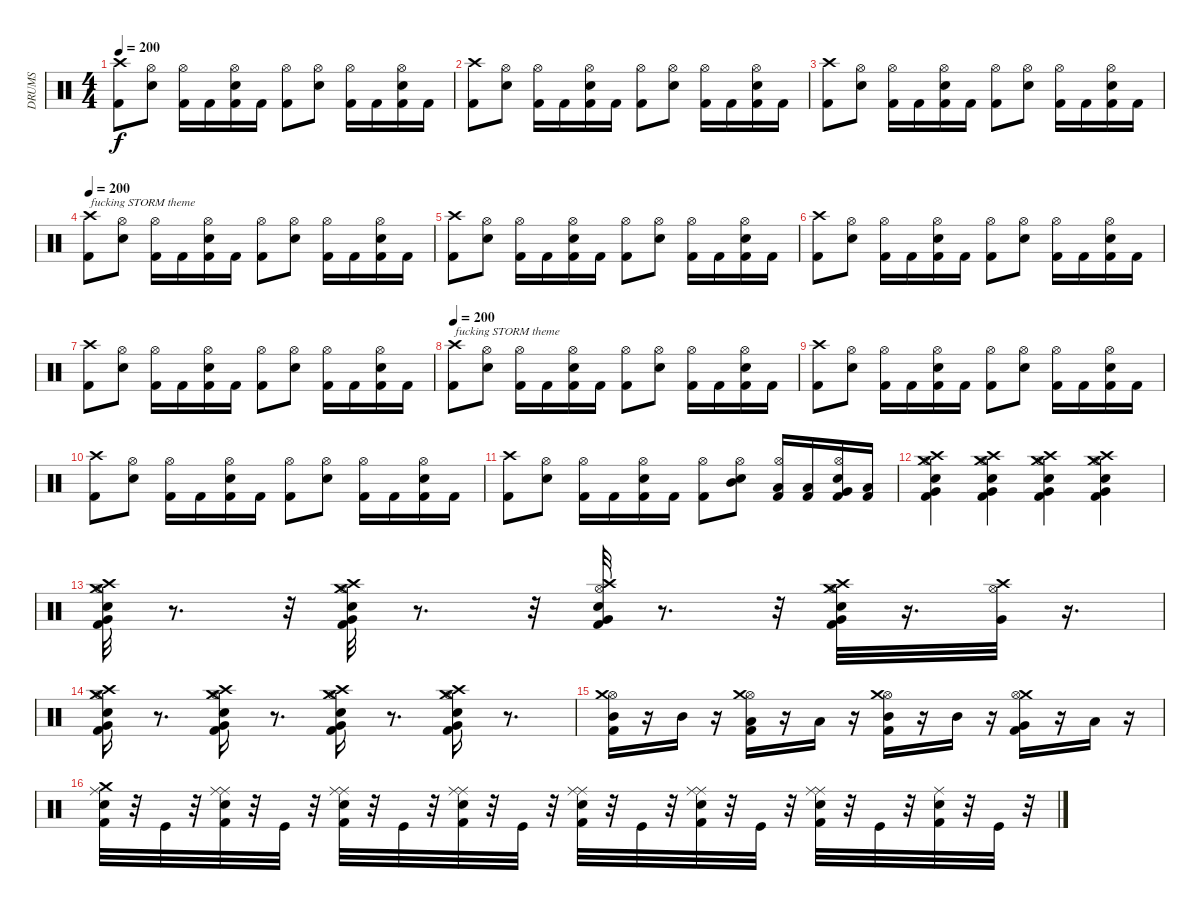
\track ("DRUMS" "DRUMS") {instrument percussion}
\staff {score}
\articulation defaults
\ts (4 4)
\tempo 200
\clef neutral
\ks c
("Kick (hit) 2" "Crash high (hit)").8{dy f} ("Snare (hit) 2" "Hi-Hat (open)").8 ("Kick (hit) 2" "Hi-Hat (open)").16 "Kick (hit) 2".16 ("Kick (hit) 2" "Snare (hit) 2" "Hi-Hat (open)").16 "Kick (hit) 2".16 ("Kick (hit) 2" "Hi-Hat (open)").8 ("Snare (hit) 2" "Hi-Hat (open)").8 ("Kick (hit) 2" "Hi-Hat (open)").16 "Kick (hit) 2".16 ("Kick (hit) 2" "Snare (hit) 2" "Hi-Hat (open)").16 "Kick (hit) 2".16 |
("Kick (hit) 2" "Crash high (hit)").8 ("Snare (hit) 2" "Hi-Hat (open)").8 ("Kick (hit) 2" "Hi-Hat (open)").16 "Kick (hit) 2".16 ("Kick (hit) 2" "Snare (hit) 2" "Hi-Hat (open)").16 "Kick (hit) 2".16 ("Kick (hit) 2" "Hi-Hat (open)").8 ("Snare (hit) 2" "Hi-Hat (open)").8 ("Kick (hit) 2" "Hi-Hat (open)").16 "Kick (hit) 2".16 ("Kick (hit) 2" "Snare (hit) 2" "Hi-Hat (open)").16 "Kick (hit) 2".16 |
("Kick (hit) 2" "Crash high (hit)").8 ("Snare (hit) 2" "Hi-Hat (open)").8 ("Kick (hit) 2" "Hi-Hat (open)").16 "Kick (hit) 2".16 ("Kick (hit) 2" "Snare (hit) 2" "Hi-Hat (open)").16 "Kick (hit) 2".16 ("Kick (hit) 2" "Hi-Hat (open)").8 ("Snare (hit) 2" "Hi-Hat (open)").8 ("Kick (hit) 2" "Hi-Hat (open)").16 "Kick (hit) 2".16 ("Kick (hit) 2" "Snare (hit) 2" "Hi-Hat (open)").16 "Kick (hit) 2".16 |
\tempo 200
("Kick (hit) 2" "Crash high (hit)").8{txt "fucking STORM theme"} ("Snare (hit) 2" "Hi-Hat (open)").8 ("Kick (hit) 2" "Hi-Hat (open)").16 "Kick (hit) 2".16 ("Kick (hit) 2" "Snare (hit) 2" "Hi-Hat (open)").16 "Kick (hit) 2".16 ("Kick (hit) 2" "Hi-Hat (open)").8 ("Snare (hit) 2" "Hi-Hat (open)").8 ("Kick (hit) 2" "Hi-Hat (open)").16 "Kick (hit) 2".16 ("Kick (hit) 2" "Snare (hit) 2" "Hi-Hat (open)").16 "Kick (hit) 2".16 |
("Kick (hit) 2" "Crash high (hit)").8 ("Snare (hit) 2" "Hi-Hat (open)").8 ("Kick (hit) 2" "Hi-Hat (open)").16 "Kick (hit) 2".16 ("Kick (hit) 2" "Snare (hit) 2" "Hi-Hat (open)").16 "Kick (hit) 2".16 ("Kick (hit) 2" "Hi-Hat (open)").8 ("Snare (hit) 2" "Hi-Hat (open)").8 ("Kick (hit) 2" "Hi-Hat (open)").16 "Kick (hit) 2".16 ("Kick (hit) 2" "Snare (hit) 2" "Hi-Hat (open)").16 "Kick (hit) 2".16 |
("Kick (hit) 2" "Crash high (hit)").8 ("Snare (hit) 2" "Hi-Hat (open)").8 ("Kick (hit) 2" "Hi-Hat (open)").16 "Kick (hit) 2".16 ("Kick (hit) 2" "Snare (hit) 2" "Hi-Hat (open)").16 "Kick (hit) 2".16 ("Kick (hit) 2" "Hi-Hat (open)").8 ("Snare (hit) 2" "Hi-Hat (open)").8 ("Kick (hit) 2" "Hi-Hat (open)").16 "Kick (hit) 2".16 ("Kick (hit) 2" "Snare (hit) 2" "Hi-Hat (open)").16 "Kick (hit) 2".16 |
("Kick (hit) 2" "Crash high (hit)").8 ("Snare (hit) 2" "Hi-Hat (open)").8 ("Kick (hit) 2" "Hi-Hat (open)").16 "Kick (hit) 2".16 ("Kick (hit) 2" "Snare (hit) 2" "Hi-Hat (open)").16 "Kick (hit) 2".16 ("Kick (hit) 2" "Hi-Hat (open)").8 ("Snare (hit) 2" "Hi-Hat (open)").8 ("Kick (hit) 2" "Hi-Hat (open)").16 "Kick (hit) 2".16 ("Kick (hit) 2" "Snare (hit) 2" "Hi-Hat (open)").16 "Kick (hit) 2".16 |
\tempo 200
("Kick (hit) 2" "Crash high (hit)").8{txt "fucking STORM theme"} ("Snare (hit) 2" "Hi-Hat (open)").8 ("Kick (hit) 2" "Hi-Hat (open)").16 "Kick (hit) 2".16 ("Kick (hit) 2" "Snare (hit) 2" "Hi-Hat (open)").16 "Kick (hit) 2".16 ("Kick (hit) 2" "Hi-Hat (open)").8 ("Snare (hit) 2" "Hi-Hat (open)").8 ("Kick (hit) 2" "Hi-Hat (open)").16 "Kick (hit) 2".16 ("Kick (hit) 2" "Snare (hit) 2" "Hi-Hat (open)").16 "Kick (hit) 2".16 |
("Kick (hit) 2" "Crash high (hit)").8 ("Snare (hit) 2" "Hi-Hat (open)").8 ("Kick (hit) 2" "Hi-Hat (open)").16 "Kick (hit) 2".16 ("Kick (hit) 2" "Snare (hit) 2" "Hi-Hat (open)").16 "Kick (hit) 2".16 ("Kick (hit) 2" "Hi-Hat (open)").8 ("Snare (hit) 2" "Hi-Hat (open)").8 ("Kick (hit) 2" "Hi-Hat (open)").16 "Kick (hit) 2".16 ("Kick (hit) 2" "Snare (hit) 2" "Hi-Hat (open)").16 "Kick (hit) 2".16 |
("Kick (hit) 2" "Crash high (hit)").8 ("Snare (hit) 2" "Hi-Hat (open)").8 ("Kick (hit) 2" "Hi-Hat (open)").16 "Kick (hit) 2".16 ("Kick (hit) 2" "Snare (hit) 2" "Hi-Hat (open)").16 "Kick (hit) 2".16 ("Kick (hit) 2" "Hi-Hat (open)").8 ("Snare (hit) 2" "Hi-Hat (open)").8 ("Kick (hit) 2" "Hi-Hat (open)").16 "Kick (hit) 2".16 ("Kick (hit) 2" "Snare (hit) 2" "Hi-Hat (open)").16 "Kick (hit) 2".16 |
("Kick (hit) 2" "Crash high (hit)").8 ("Snare (hit) 2" "Hi-Hat (open)").8 ("Kick (hit) 2" "Hi-Hat (open)").16 "Kick (hit) 2".16 ("Kick (hit) 2" "Snare (hit) 2" "Hi-Hat (open)").16 "Kick (hit) 2".16 ("Kick (hit) 2" "Hi-Hat (open)").8 ("Snare (hit) 2" "Hi-Hat (open)" "Mid Tom (hit)").8 ("Kick (hit) 2" "Hi-Hat (open)" "Low Tom (hit)").16 ("Kick (hit) 2" "Low Tom (hit)").16 ("Kick (hit) 2" "Snare (hit) 2" "Hi-Hat (open)" "Very Low Tom (hit)").16 ("Kick (hit) 2" "Low Floor Tom (hit)").16 |
("Very Low Tom (hit)" "Crash high (hit)" "Crash medium (hit)" "Snare (hit) 2" "Kick (hit) 2" "Hi-Hat (open)").4 ("Crash high (hit)" "Very Low Tom (hit)" "Kick (hit) 2" "Hi-Hat (open)" "Crash medium (hit)" "Snare (hit) 2").4 ("Crash high (hit)" "Very Low Tom (hit)" "Crash medium (hit)" "Hi-Hat (open)" "Kick (hit) 2" "Snare (hit) 2").4 ("Crash high (hit)" "Very Low Tom (hit)" "Hi-Hat (open)" "Snare (hit) 2" "Crash medium (hit)" "Kick (hit) 2").4 |
("Snare (hit) 2" "Hi-Hat (open)" "Kick (hit) 2" "Crash medium (hit)" "Crash high (hit)" "Very Low Tom (hit)").32 r.8{d} r.32 ("Snare (hit) 2" "Hi-Hat (open)" "Crash high (hit)" "Crash medium (hit)" "Kick (hit) 2" "Very Low Tom (hit)").32 r.8{d} r.32 ("Snare (hit) 2" "Crash high (hit)" "Hi-Hat (open)" "Kick (hit) 2" "Very Low Tom (hit)").32 r.8{d} r.32 ("Crash medium (hit)" "Crash high (hit)" "Hi-Hat (open)" "Kick (hit) 2" "Snare (hit) 2" "Very Low Tom (hit)").32 r.16{d} ("Very Low Tom (hit)" "Hi-Hat (open)" "Crash high (hit)").32 r.16{d} |
("Crash medium (hit)" "Snare (hit) 2" "Kick (hit) 2" "Crash high (hit)" "Hi-Hat (open)" "Very Low Tom (hit)").16 r.8{d} ("Snare (hit) 2" "Hi-Hat (open)" "Crash medium (hit)" "Kick (hit) 2" "Crash high (hit)" "Very Low Tom (hit)").16 r.8{d} ("Crash medium (hit)" "Snare (hit) 2" "Crash high (hit)" "Hi-Hat (open)" "Very Low Tom (hit)" "Kick (hit) 2").16 r.8{d} ("Kick (hit) 2" "Snare (hit) 2" "Crash medium (hit)" "Hi-Hat (open)" "Crash high (hit)" "Very Low Tom (hit)").16 r.8{d} |
("Hi-Hat (open)" "Mid Tom (hit)" "Kick (hit) 2" "Crash medium (hit)").16 r.16 "Mid Tom (hit)".16 r.16 ("Hi-Hat (open)" "Kick (hit) 2" "Low Tom (hit)" "Crash medium (hit)").16 r.16 "Low Tom (hit)".16 r.16 ("Hi-Hat (open)" "Kick (hit) 2" "Crash medium (hit)" "Mid Tom (hit)").16 r.16 "Mid Tom (hit)".16 r.16 ("Kick (hit) 2" "Crash medium (hit)" "Very Low Tom (hit)" "Hi-Hat (open)").16 r.16 "Low Tom (hit)".16 r.16 |
("Snare (hit) 2" "Kick (hit) 2" "Crash medium (hit)" "Ride (middle)").32 r.32 "Kick (hit)".32 r.32 ("Ride (middle)" "Kick (hit) 2" "Ride (middle)" "Snare (hit) 2").32 r.32 "Kick (hit)".32 r.32 ("Kick (hit) 2" "Snare (hit) 2" "Ride (middle)" "Ride (middle)").32 r.32 "Kick (hit)".32 r.32 ("Ride (middle)" "Kick (hit) 2" "Ride (middle)" "Snare (hit) 2").32 r.32 "Kick (hit)".32 r.32 ("Ride (middle)" "Snare (hit) 2" "Kick (hit) 2" "Ride (middle)").32 r.32 "Kick (hit)".32 r.32 ("Snare (hit) 2" "Ride (middle)" "Kick (hit) 2" "Ride (middle)").32 r.32 "Kick (hit)".32 r.32 ("Ride (middle)" "Ride (middle)" "Snare (hit) 2" "Kick (hit) 2").32 r.32 "Kick (hit)".32 r.32 ("Ride (middle)" "Snare (hit) 2" "Kick (hit) 2").32 r.32 "Kick (hit)".32 r.32
